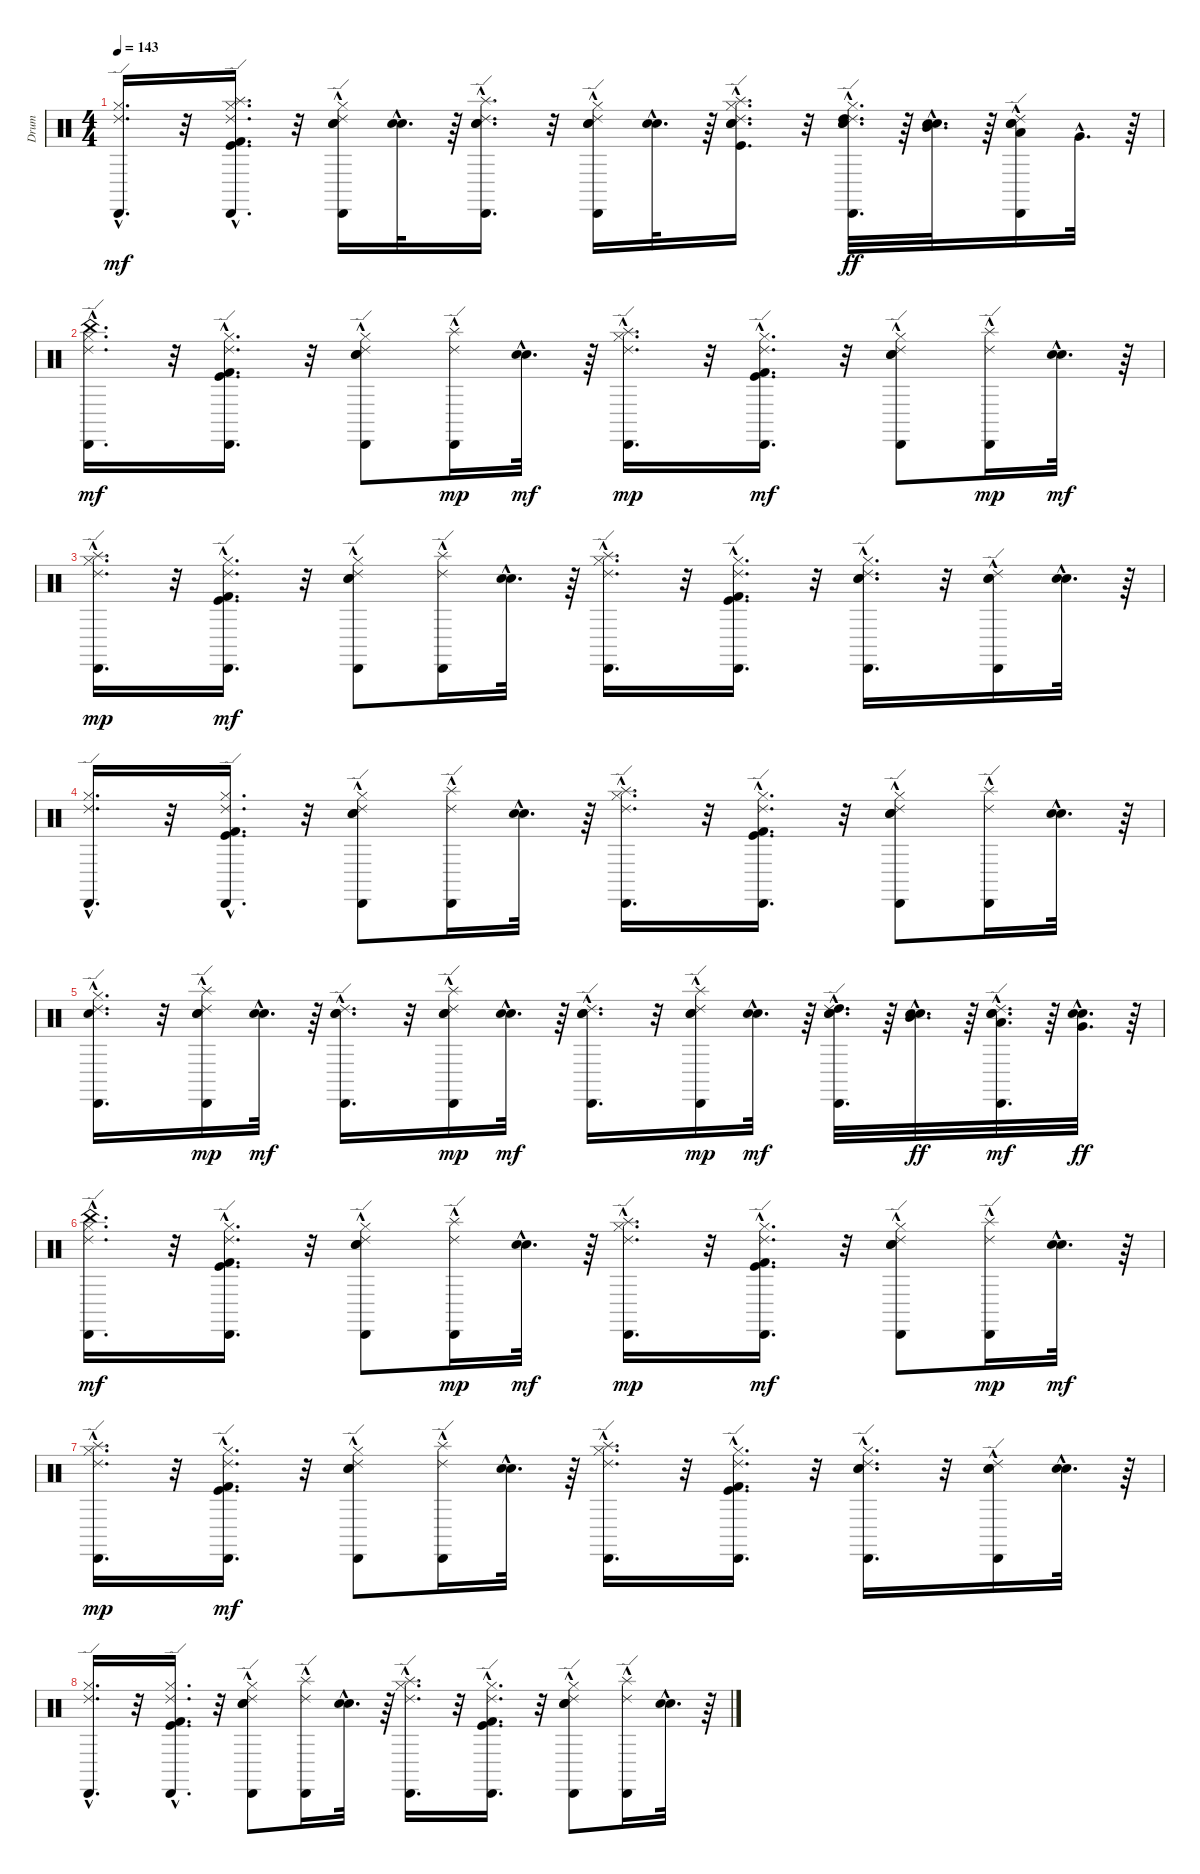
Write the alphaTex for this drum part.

\track ("Drum" "Drum") {instrument percussion}
\staff {score}
\articulation defaults
\ts (4 4)
\tempo 143
\clef neutral
\ks c
("Ride (edge) 2"{hac} "Hi-Hat (closed)"{hac} "Cabasa (hit)"{hac}).16{d dy mf} r.32 ("Splash (hit)"{hac} "Ride (edge) 2"{hac} "Kick (hit) 2"{hac} "Kick (hit)"{hac} "Hi-Hat (closed)"{hac} "Cabasa (hit)"{hac}).16{d} r.32 ("Ride (edge) 2"{hac} "Electric Snare (hit)"{hac} "Hi-Hat (closed)"{hac} "Snare (hit) 2"{hac} "Cabasa (hit)"{hac}).16 ("Electric Snare (hit)"{hac} "Snare (hit) 2"{hac}).32{d} r.64 ("Splash (hit)"{hac} "Ride (edge) 2"{hac} "Electric Snare (hit)"{hac} "Snare (hit) 2"{hac} "Cabasa (hit)"{hac}).16{d} r.32 ("Ride (edge) 2"{hac} "Electric Snare (hit)"{hac} "Hi-Hat (closed)"{hac} "Snare (hit) 2"{hac} "Cabasa (hit)"{hac}).16 ("Electric Snare (hit)"{hac} "Snare (hit) 2"{hac}).32{d} r.64 ("Splash (hit)"{hac} "Ride (edge) 2"{hac} "Electric Snare (hit)"{hac} "Kick (hit)"{hac} "Hi-Hat (closed)"{hac} "Snare (hit) 2"{hac}).16{d} r.32 ("Ride (edge) 2"{hac} "Electric Snare (hit)"{hac} "Hi-Hat (closed)"{hac} "Snare (hit) 2"{hac} "Cabasa (hit)"{hac} "High Tom (hit)"{hac}).32{d dy ff} r.64 ("Electric Snare (hit)"{hac} "Snare (hit) 2"{hac} "Mid Tom (hit)"{hac}).32{d} r.64 ("Ride (edge) 2"{hac} "Electric Snare (hit)"{hac} "Snare (hit) 2"{hac} "Cabasa (hit)"{hac} "Low Tom (hit)"{hac}).16 "Very Low Tom (hit)"{hac}.32{d} r.64 |
("Hi-Hat (closed)"{hac} "Cabasa (hit)"{hac} "Ride (edge) 2"{hac} "China (hit)"{hac}).16{d dy mf} r.32 ("Hi-Hat (closed)"{hac} "Kick (hit)"{hac} "Cabasa (hit)"{hac} "Kick (hit) 2"{hac} "Ride (edge) 2"{hac}).16{d} r.32 ("Hi-Hat (closed)" "Snare (hit) 2" "Cabasa (hit)"{hac} "Electric Snare (hit)" "Ride (edge) 2"{hac}).8 ("Cabasa (hit)"{hac} "Ride (edge) 2"{hac} "Splash (hit)"{hac}).16{dy mp} ("Snare (hit) 2"{hac} "Electric Snare (hit)"{hac}).32{d dy mf} r.64 ("Hi-Hat (closed)"{hac} "Cabasa (hit)"{hac} "Ride (edge) 2"{hac} "Splash (hit)"{hac}).16{d dy mp} r.32 ("Hi-Hat (closed)"{hac} "Kick (hit)"{hac} "Cabasa (hit)"{hac} "Kick (hit) 2"{hac} "Ride (edge) 2"{hac}).16{d dy mf} r.32 ("Hi-Hat (closed)" "Snare (hit) 2" "Cabasa (hit)"{hac} "Electric Snare (hit)" "Ride (edge) 2"{hac}).8 ("Cabasa (hit)"{hac} "Ride (edge) 2"{hac} "Splash (hit)"{hac}).16{dy mp} ("Snare (hit) 2"{hac} "Electric Snare (hit)"{hac}).32{d dy mf} r.64 |
("Hi-Hat (closed)"{hac} "Ride (edge) 2"{hac} "Cabasa (hit)"{hac} "Splash (hit)"{hac}).16{d dy mp} r.32 ("Kick (hit)"{hac} "Hi-Hat (closed)"{hac} "Kick (hit) 2"{hac} "Ride (edge) 2"{hac} "Cabasa (hit)"{hac}).16{d dy mf} r.32 ("Snare (hit) 2" "Hi-Hat (closed)" "Electric Snare (hit)" "Ride (edge) 2"{hac} "Cabasa (hit)"{hac}).8 ("Splash (hit)"{hac} "Ride (edge) 2"{hac} "Cabasa (hit)"{hac}).16 ("Snare (hit) 2"{hac} "Electric Snare (hit)"{hac}).32{d} r.64 ("Hi-Hat (closed)"{hac} "Splash (hit)"{hac} "Ride (edge) 2"{hac} "Cabasa (hit)"{hac}).16{d} r.32 ("Kick (hit)"{hac} "Hi-Hat (closed)"{hac} "Kick (hit) 2"{hac} "Ride (edge) 2"{hac} "Cabasa (hit)"{hac}).16{d} r.32 ("Snare (hit) 2"{hac} "Hi-Hat (closed)"{hac} "Electric Snare (hit)"{hac} "Ride (edge) 2"{hac} "Cabasa (hit)"{hac}).16{d} r.32 ("Snare (hit) 2"{hac} "Electric Snare (hit)"{hac} "Ride (edge) 2"{hac} "Cabasa (hit)"{hac}).16 ("Snare (hit) 2"{hac} "Electric Snare (hit)"{hac}).32{d} r.64 |
("Hi-Hat (closed)"{hac} "Ride (edge) 2"{hac} "Cabasa (hit)"{hac}).16{d} r.32 ("Hi-Hat (closed)"{hac} "Kick (hit)"{hac} "Kick (hit) 2"{hac} "Ride (edge) 2"{hac} "Cabasa (hit)"{hac}).16{d} r.32 ("Hi-Hat (closed)" "Snare (hit) 2" "Electric Snare (hit)" "Ride (edge) 2"{hac} "Cabasa (hit)"{hac}).8 ("Splash (hit)"{hac} "Ride (edge) 2"{hac} "Cabasa (hit)"{hac}).16 ("Snare (hit) 2"{hac} "Electric Snare (hit)"{hac}).32{d} r.64 ("Hi-Hat (closed)"{hac} "Splash (hit)"{hac} "Ride (edge) 2"{hac} "Cabasa (hit)"{hac}).16{d} r.32 ("Hi-Hat (closed)"{hac} "Kick (hit)"{hac} "Kick (hit) 2"{hac} "Ride (edge) 2"{hac} "Cabasa (hit)"{hac}).16{d} r.32 ("Electric Snare (hit)" "Snare (hit) 2" "Hi-Hat (closed)" "Ride (edge) 2"{hac} "Cabasa (hit)"{hac}).8 ("Splash (hit)"{hac} "Ride (edge) 2"{hac} "Cabasa (hit)"{hac}).16 ("Electric Snare (hit)"{hac} "Snare (hit) 2"{hac}).32{d} r.64 |
("Snare (hit) 2"{hac} "Hi-Hat (closed)"{hac} "Cabasa (hit)"{hac} "Ride (edge) 2"{hac}).16{d} r.32 ("Electric Snare (hit)"{hac} "Snare (hit) 2"{hac} "Cabasa (hit)"{hac} "Ride (edge) 2"{hac} "Splash (hit)"{hac}).16{dy mp} ("Electric Snare (hit)"{hac} "Snare (hit) 2"{hac}).32{d dy mf} r.64 ("Electric Snare (hit)"{hac} "Snare (hit) 2"{hac} "Cabasa (hit)"{hac} "Ride (edge) 2"{hac}).16{d} r.32 ("Electric Snare (hit)"{hac} "Snare (hit) 2"{hac} "Cabasa (hit)"{hac} "Ride (edge) 2"{hac} "Splash (hit)"{hac}).16{dy mp} ("Electric Snare (hit)"{hac} "Snare (hit) 2"{hac}).32{d dy mf} r.64 ("Electric Snare (hit)"{hac} "Snare (hit) 2"{hac} "Cabasa (hit)"{hac} "Ride (edge) 2"{hac}).16{d} r.32 ("Electric Snare (hit)"{hac} "Snare (hit) 2"{hac} "Cabasa (hit)"{hac} "Ride (edge) 2"{hac} "Splash (hit)"{hac}).16{dy mp} ("Electric Snare (hit)"{hac} "Snare (hit) 2"{hac}).32{d dy mf} r.64 ("Snare (hit) 2"{hac} "Electric Snare (hit)"{hac} "High Tom (hit)"{hac} "Cabasa (hit)"{hac} "Ride (edge) 2"{hac}).32{d} r.64 ("Snare (hit) 2"{hac} "Electric Snare (hit)"{hac} "Mid Tom (hit)"{hac}).32{d dy ff} r.64 ("Snare (hit) 2"{hac} "Electric Snare (hit)"{hac} "Low Tom (hit)"{hac} "Cabasa (hit)"{hac} "Ride (edge) 2"{hac}).32{d dy mf} r.64 ("Snare (hit) 2"{hac} "Electric Snare (hit)"{hac} "Very Low Tom (hit)"{hac}).32{d dy ff} r.64 |
("Hi-Hat (closed)"{hac} "Cabasa (hit)"{hac} "Ride (edge) 2"{hac} "China (hit)"{hac}).16{d dy mf} r.32 ("Hi-Hat (closed)"{hac} "Kick (hit)"{hac} "Cabasa (hit)"{hac} "Kick (hit) 2"{hac} "Ride (edge) 2"{hac}).16{d} r.32 ("Hi-Hat (closed)" "Snare (hit) 2" "Cabasa (hit)"{hac} "Electric Snare (hit)" "Ride (edge) 2"{hac}).8 ("Cabasa (hit)"{hac} "Ride (edge) 2"{hac} "Splash (hit)"{hac}).16{dy mp} ("Snare (hit) 2"{hac} "Electric Snare (hit)"{hac}).32{d dy mf} r.64 ("Hi-Hat (closed)"{hac} "Cabasa (hit)"{hac} "Ride (edge) 2"{hac} "Splash (hit)"{hac}).16{d dy mp} r.32 ("Hi-Hat (closed)"{hac} "Kick (hit)"{hac} "Cabasa (hit)"{hac} "Kick (hit) 2"{hac} "Ride (edge) 2"{hac}).16{d dy mf} r.32 ("Hi-Hat (closed)" "Snare (hit) 2" "Cabasa (hit)"{hac} "Electric Snare (hit)" "Ride (edge) 2"{hac}).8 ("Cabasa (hit)"{hac} "Ride (edge) 2"{hac} "Splash (hit)"{hac}).16{dy mp} ("Snare (hit) 2"{hac} "Electric Snare (hit)"{hac}).32{d dy mf} r.64 |
("Hi-Hat (closed)"{hac} "Ride (edge) 2"{hac} "Cabasa (hit)"{hac} "Splash (hit)"{hac}).16{d dy mp} r.32 ("Kick (hit)"{hac} "Hi-Hat (closed)"{hac} "Kick (hit) 2"{hac} "Ride (edge) 2"{hac} "Cabasa (hit)"{hac}).16{d dy mf} r.32 ("Snare (hit) 2" "Hi-Hat (closed)" "Electric Snare (hit)" "Ride (edge) 2"{hac} "Cabasa (hit)"{hac}).8 ("Splash (hit)"{hac} "Ride (edge) 2"{hac} "Cabasa (hit)"{hac}).16 ("Snare (hit) 2"{hac} "Electric Snare (hit)"{hac}).32{d} r.64 ("Hi-Hat (closed)"{hac} "Splash (hit)"{hac} "Ride (edge) 2"{hac} "Cabasa (hit)"{hac}).16{d} r.32 ("Kick (hit)"{hac} "Hi-Hat (closed)"{hac} "Kick (hit) 2"{hac} "Ride (edge) 2"{hac} "Cabasa (hit)"{hac}).16{d} r.32 ("Snare (hit) 2"{hac} "Hi-Hat (closed)"{hac} "Electric Snare (hit)"{hac} "Ride (edge) 2"{hac} "Cabasa (hit)"{hac}).16{d} r.32 ("Snare (hit) 2"{hac} "Electric Snare (hit)"{hac} "Ride (edge) 2"{hac} "Cabasa (hit)"{hac}).16 ("Snare (hit) 2"{hac} "Electric Snare (hit)"{hac}).32{d} r.64 |
("Hi-Hat (closed)"{hac} "Ride (edge) 2"{hac} "Cabasa (hit)"{hac}).16{d} r.32 ("Hi-Hat (closed)"{hac} "Kick (hit)"{hac} "Kick (hit) 2"{hac} "Ride (edge) 2"{hac} "Cabasa (hit)"{hac}).16{d} r.32 ("Hi-Hat (closed)" "Snare (hit) 2" "Electric Snare (hit)" "Ride (edge) 2"{hac} "Cabasa (hit)"{hac}).8 ("Splash (hit)"{hac} "Ride (edge) 2"{hac} "Cabasa (hit)"{hac}).16 ("Snare (hit) 2"{hac} "Electric Snare (hit)"{hac}).32{d} r.64 ("Hi-Hat (closed)"{hac} "Splash (hit)"{hac} "Ride (edge) 2"{hac} "Cabasa (hit)"{hac}).16{d} r.32 ("Hi-Hat (closed)"{hac} "Kick (hit)"{hac} "Kick (hit) 2"{hac} "Ride (edge) 2"{hac} "Cabasa (hit)"{hac}).16{d} r.32 ("Hi-Hat (closed)" "Snare (hit) 2" "Electric Snare (hit)" "Ride (edge) 2"{hac} "Cabasa (hit)"{hac}).8 ("Splash (hit)"{hac} "Ride (edge) 2"{hac} "Cabasa (hit)"{hac}).16 ("Snare (hit) 2"{hac} "Electric Snare (hit)"{hac}).32{d} r.64
